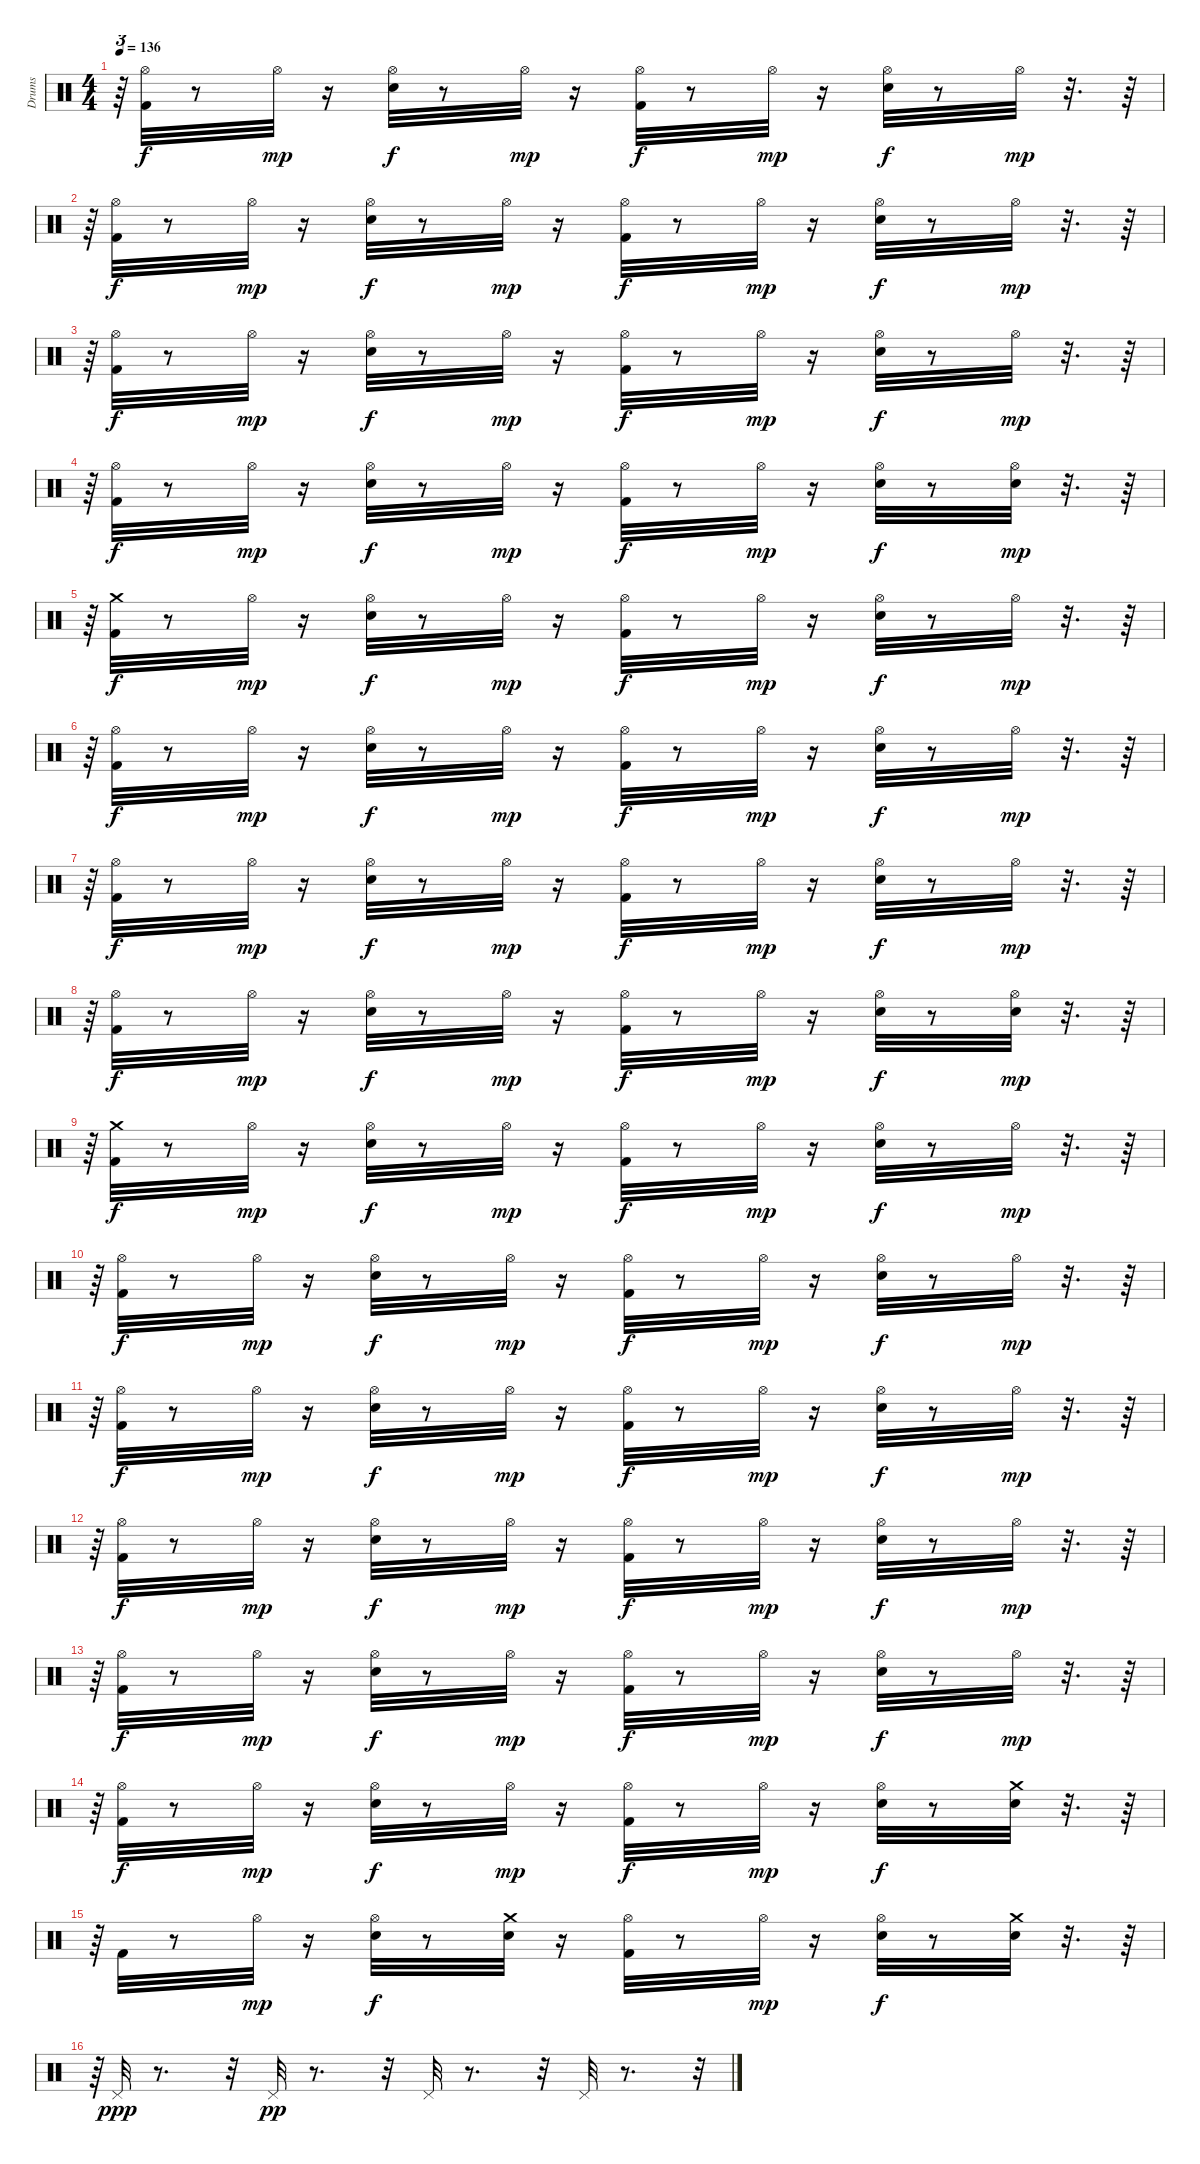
\track ("Drums" "Drums") {instrument percussion}
\staff {score}
\articulation defaults
\ts (4 4)
\tempo 136
\clef neutral
\ks c
r.64{tu (3 2) dy mp} ("Hi-Hat (open)" "Kick (hit) 2").32{dy f} r.8 "Hi-Hat (open)".32{dy mp} r.16 ("Hi-Hat (open)" "Electric Snare (hit)").32{dy f} r.8 "Hi-Hat (open)".32{dy mp} r.16 ("Hi-Hat (open)" "Kick (hit) 2").32{dy f} r.8 "Hi-Hat (open)".32{dy mp} r.16 ("Hi-Hat (open)" "Electric Snare (hit)").32{dy f} r.8 "Hi-Hat (open)".32{dy mp} r.32{d} r.64 |
r.64{tu (3 2)} ("Hi-Hat (open)" "Kick (hit) 2").32{dy f} r.8 "Hi-Hat (open)".32{dy mp} r.16 ("Hi-Hat (open)" "Electric Snare (hit)").32{dy f} r.8 "Hi-Hat (open)".32{dy mp} r.16 ("Hi-Hat (open)" "Kick (hit) 2").32{dy f} r.8 "Hi-Hat (open)".32{dy mp} r.16 ("Hi-Hat (open)" "Electric Snare (hit)").32{dy f} r.8 "Hi-Hat (open)".32{dy mp} r.32{d} r.64 |
r.64{tu (3 2)} ("Hi-Hat (open)" "Kick (hit) 2").32{dy f} r.8 "Hi-Hat (open)".32{dy mp} r.16 ("Hi-Hat (open)" "Electric Snare (hit)").32{dy f} r.8 "Hi-Hat (open)".32{dy mp} r.16 ("Hi-Hat (open)" "Kick (hit) 2").32{dy f} r.8 "Hi-Hat (open)".32{dy mp} r.16 ("Hi-Hat (open)" "Electric Snare (hit)").32{dy f} r.8 "Hi-Hat (open)".32{dy mp} r.32{d} r.64 |
r.64{tu (3 2)} ("Hi-Hat (open)" "Kick (hit) 2").32{dy f} r.8 "Hi-Hat (open)".32{dy mp} r.16 ("Hi-Hat (open)" "Electric Snare (hit)").32{dy f} r.8 "Hi-Hat (open)".32{dy mp} r.16 ("Hi-Hat (open)" "Kick (hit) 2").32{dy f} r.8 "Hi-Hat (open)".32{dy mp} r.16 ("Hi-Hat (open)" "Electric Snare (hit)").32{dy f} r.8 ("Electric Snare (hit)" "Hi-Hat (open)").32{dy mp} r.32{d} r.64 |
r.64{tu (3 2)} ("Crash medium (hit)" "Kick (hit) 2").32{dy f} r.8 "Hi-Hat (open)".32{dy mp} r.16 ("Hi-Hat (open)" "Electric Snare (hit)").32{dy f} r.8 "Hi-Hat (open)".32{dy mp} r.16 ("Hi-Hat (open)" "Kick (hit) 2").32{dy f} r.8 "Hi-Hat (open)".32{dy mp} r.16 ("Hi-Hat (open)" "Electric Snare (hit)").32{dy f} r.8 "Hi-Hat (open)".32{dy mp} r.32{d} r.64 |
r.64{tu (3 2)} ("Hi-Hat (open)" "Kick (hit) 2").32{dy f} r.8 "Hi-Hat (open)".32{dy mp} r.16 ("Hi-Hat (open)" "Electric Snare (hit)").32{dy f} r.8 "Hi-Hat (open)".32{dy mp} r.16 ("Hi-Hat (open)" "Kick (hit) 2").32{dy f} r.8 "Hi-Hat (open)".32{dy mp} r.16 ("Hi-Hat (open)" "Electric Snare (hit)").32{dy f} r.8 "Hi-Hat (open)".32{dy mp} r.32{d} r.64 |
r.64{tu (3 2)} ("Hi-Hat (open)" "Kick (hit) 2").32{dy f} r.8 "Hi-Hat (open)".32{dy mp} r.16 ("Hi-Hat (open)" "Electric Snare (hit)").32{dy f} r.8 "Hi-Hat (open)".32{dy mp} r.16 ("Hi-Hat (open)" "Kick (hit) 2").32{dy f} r.8 "Hi-Hat (open)".32{dy mp} r.16 ("Hi-Hat (open)" "Electric Snare (hit)").32{dy f} r.8 "Hi-Hat (open)".32{dy mp} r.32{d} r.64 |
r.64{tu (3 2)} ("Hi-Hat (open)" "Kick (hit) 2").32{dy f} r.8 "Hi-Hat (open)".32{dy mp} r.16 ("Hi-Hat (open)" "Electric Snare (hit)").32{dy f} r.8 "Hi-Hat (open)".32{dy mp} r.16 ("Hi-Hat (open)" "Kick (hit) 2").32{dy f} r.8 "Hi-Hat (open)".32{dy mp} r.16 ("Hi-Hat (open)" "Electric Snare (hit)").32{dy f} r.8 ("Electric Snare (hit)" "Hi-Hat (open)").32{dy mp} r.32{d} r.64 |
r.64{tu (3 2)} ("Crash medium (hit)" "Kick (hit) 2").32{dy f} r.8 "Hi-Hat (open)".32{dy mp} r.16 ("Hi-Hat (open)" "Electric Snare (hit)").32{dy f} r.8 "Hi-Hat (open)".32{dy mp} r.16 ("Hi-Hat (open)" "Kick (hit) 2").32{dy f} r.8 "Hi-Hat (open)".32{dy mp} r.16 ("Hi-Hat (open)" "Electric Snare (hit)").32{dy f} r.8 "Hi-Hat (open)".32{dy mp} r.32{d} r.64 |
r.64{tu (3 2)} ("Hi-Hat (open)" "Kick (hit) 2").32{dy f} r.8 "Hi-Hat (open)".32{dy mp} r.16 ("Hi-Hat (open)" "Electric Snare (hit)").32{dy f} r.8 "Hi-Hat (open)".32{dy mp} r.16 ("Hi-Hat (open)" "Kick (hit) 2").32{dy f} r.8 "Hi-Hat (open)".32{dy mp} r.16 ("Hi-Hat (open)" "Electric Snare (hit)").32{dy f} r.8 "Hi-Hat (open)".32{dy mp} r.32{d} r.64 |
r.64{tu (3 2)} ("Hi-Hat (open)" "Kick (hit) 2").32{dy f} r.8 "Hi-Hat (open)".32{dy mp} r.16 ("Hi-Hat (open)" "Electric Snare (hit)").32{dy f} r.8 "Hi-Hat (open)".32{dy mp} r.16 ("Hi-Hat (open)" "Kick (hit) 2").32{dy f} r.8 "Hi-Hat (open)".32{dy mp} r.16 ("Hi-Hat (open)" "Electric Snare (hit)").32{dy f} r.8 "Hi-Hat (open)".32{dy mp} r.32{d} r.64 |
r.64{tu (3 2)} ("Hi-Hat (open)" "Kick (hit) 2").32{dy f} r.8 "Hi-Hat (open)".32{dy mp} r.16 ("Hi-Hat (open)" "Electric Snare (hit)").32{dy f} r.8 "Hi-Hat (open)".32{dy mp} r.16 ("Hi-Hat (open)" "Kick (hit) 2").32{dy f} r.8 "Hi-Hat (open)".32{dy mp} r.16 ("Hi-Hat (open)" "Electric Snare (hit)").32{dy f} r.8 "Hi-Hat (open)".32{dy mp} r.32{d} r.64 |
r.64{tu (3 2)} ("Hi-Hat (open)" "Kick (hit) 2").32{dy f} r.8 "Hi-Hat (open)".32{dy mp} r.16 ("Hi-Hat (open)" "Electric Snare (hit)").32{dy f} r.8 "Hi-Hat (open)".32{dy mp} r.16 ("Hi-Hat (open)" "Kick (hit) 2").32{dy f} r.8 "Hi-Hat (open)".32{dy mp} r.16 ("Hi-Hat (open)" "Electric Snare (hit)").32{dy f} r.8 "Hi-Hat (open)".32{dy mp} r.32{d} r.64 |
r.64{tu (3 2)} ("Hi-Hat (open)" "Kick (hit) 2").32{dy f} r.8 "Hi-Hat (open)".32{dy mp} r.16 ("Hi-Hat (open)" "Electric Snare (hit)").32{dy f} r.8 "Hi-Hat (open)".32{dy mp} r.16 ("Hi-Hat (open)" "Kick (hit) 2").32{dy f} r.8 "Hi-Hat (open)".32{dy mp} r.16 ("Hi-Hat (open)" "Electric Snare (hit)").32{dy f} r.8 ("Crash medium (hit)" "Electric Snare (hit)").32 r.32{d} r.64 |
r.64{tu (3 2)} "Kick (hit) 2".32 r.8 "Hi-Hat (open)".32{dy mp} r.16 ("Hi-Hat (open)" "Electric Snare (hit)").32{dy f} r.8 ("Electric Snare (hit)" "Crash medium (hit)").32 r.16 ("Hi-Hat (open)" "Kick (hit) 2").32 r.8 "Hi-Hat (open)".32{dy mp} r.16 ("Hi-Hat (open)" "Electric Snare (hit)").32{dy f} r.8 ("Crash medium (hit)" "Electric Snare (hit)").32 r.32{d} r.64 |
r.64{tu (3 2)} "Pedal Hi-Hat (hit)".32{dy ppp} r.8{d} r.32 "Pedal Hi-Hat (hit)".32{dy pp} r.8{d} r.32 "Pedal Hi-Hat (hit)".32 r.8{d} r.32 "Pedal Hi-Hat (hit)".32 r.8{d} r.32{tu (3 2)}
